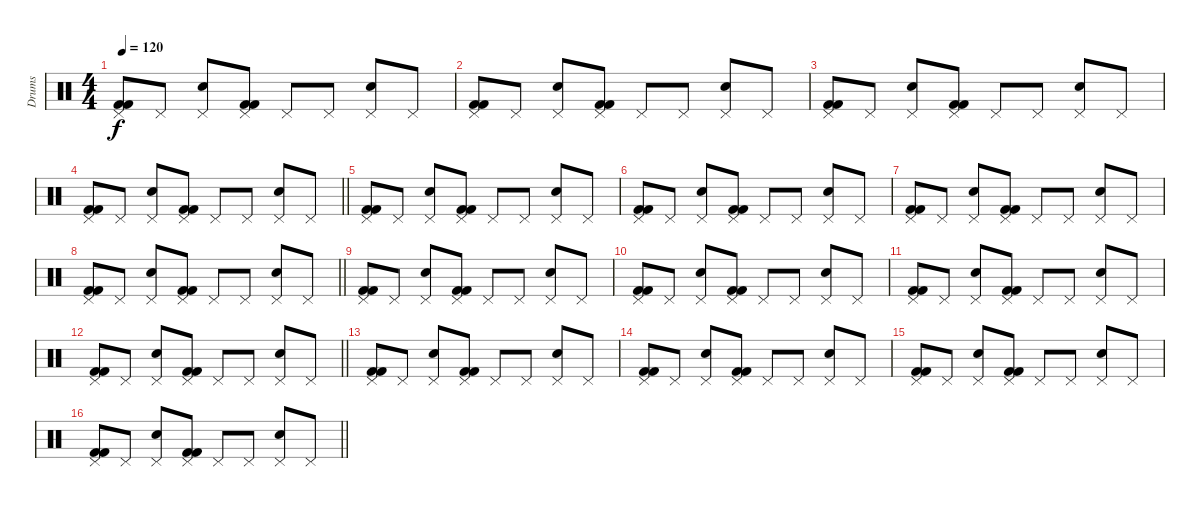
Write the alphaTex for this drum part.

\track ("Drums" "Drums") {instrument percussion}
\staff {score}
\articulation defaults
\ts (4 4)
\tempo 120
\clef neutral
\ks c
("Pedal Hi-Hat (hit)" "Kick (hit) 2" "Kick (hit) 2").8{dy f} "Pedal Hi-Hat (hit)".8 ("Electric Snare (hit)" "Pedal Hi-Hat (hit)").8 ("Pedal Hi-Hat (hit)" "Kick (hit) 2" "Kick (hit) 2").8 "Pedal Hi-Hat (hit)".8 "Pedal Hi-Hat (hit)".8 ("Electric Snare (hit)" "Pedal Hi-Hat (hit)").8 "Pedal Hi-Hat (hit)".8 |
("Pedal Hi-Hat (hit)" "Kick (hit) 2" "Kick (hit) 2").8 "Pedal Hi-Hat (hit)".8 ("Electric Snare (hit)" "Pedal Hi-Hat (hit)").8 ("Pedal Hi-Hat (hit)" "Kick (hit) 2" "Kick (hit) 2").8 "Pedal Hi-Hat (hit)".8 "Pedal Hi-Hat (hit)".8 ("Electric Snare (hit)" "Pedal Hi-Hat (hit)").8 "Pedal Hi-Hat (hit)".8 |
("Pedal Hi-Hat (hit)" "Kick (hit) 2" "Kick (hit) 2").8 "Pedal Hi-Hat (hit)".8 ("Electric Snare (hit)" "Pedal Hi-Hat (hit)").8 ("Pedal Hi-Hat (hit)" "Kick (hit) 2" "Kick (hit) 2").8 "Pedal Hi-Hat (hit)".8 "Pedal Hi-Hat (hit)".8 ("Electric Snare (hit)" "Pedal Hi-Hat (hit)").8 "Pedal Hi-Hat (hit)".8 |
\barLineRight lightlight
("Pedal Hi-Hat (hit)" "Kick (hit) 2" "Kick (hit) 2").8 "Pedal Hi-Hat (hit)".8 ("Electric Snare (hit)" "Pedal Hi-Hat (hit)").8 ("Pedal Hi-Hat (hit)" "Kick (hit) 2" "Kick (hit) 2").8 "Pedal Hi-Hat (hit)".8 "Pedal Hi-Hat (hit)".8 ("Electric Snare (hit)" "Pedal Hi-Hat (hit)").8 "Pedal Hi-Hat (hit)".8 |
("Pedal Hi-Hat (hit)" "Kick (hit) 2" "Kick (hit) 2").8 "Pedal Hi-Hat (hit)".8 ("Electric Snare (hit)" "Pedal Hi-Hat (hit)").8 ("Pedal Hi-Hat (hit)" "Kick (hit) 2" "Kick (hit) 2").8 "Pedal Hi-Hat (hit)".8 "Pedal Hi-Hat (hit)".8 ("Electric Snare (hit)" "Pedal Hi-Hat (hit)").8 "Pedal Hi-Hat (hit)".8 |
("Pedal Hi-Hat (hit)" "Kick (hit) 2" "Kick (hit) 2").8 "Pedal Hi-Hat (hit)".8 ("Electric Snare (hit)" "Pedal Hi-Hat (hit)").8 ("Pedal Hi-Hat (hit)" "Kick (hit) 2" "Kick (hit) 2").8 "Pedal Hi-Hat (hit)".8 "Pedal Hi-Hat (hit)".8 ("Electric Snare (hit)" "Pedal Hi-Hat (hit)").8 "Pedal Hi-Hat (hit)".8 |
("Pedal Hi-Hat (hit)" "Kick (hit) 2" "Kick (hit) 2").8 "Pedal Hi-Hat (hit)".8 ("Electric Snare (hit)" "Pedal Hi-Hat (hit)").8 ("Pedal Hi-Hat (hit)" "Kick (hit) 2" "Kick (hit) 2").8 "Pedal Hi-Hat (hit)".8 "Pedal Hi-Hat (hit)".8 ("Electric Snare (hit)" "Pedal Hi-Hat (hit)").8 "Pedal Hi-Hat (hit)".8 |
\barLineRight lightlight
("Pedal Hi-Hat (hit)" "Kick (hit) 2" "Kick (hit) 2").8 "Pedal Hi-Hat (hit)".8 ("Electric Snare (hit)" "Pedal Hi-Hat (hit)").8 ("Pedal Hi-Hat (hit)" "Kick (hit) 2" "Kick (hit) 2").8 "Pedal Hi-Hat (hit)".8 "Pedal Hi-Hat (hit)".8 ("Electric Snare (hit)" "Pedal Hi-Hat (hit)").8 "Pedal Hi-Hat (hit)".8 |
("Pedal Hi-Hat (hit)" "Kick (hit) 2" "Kick (hit) 2").8 "Pedal Hi-Hat (hit)".8 ("Electric Snare (hit)" "Pedal Hi-Hat (hit)").8 ("Pedal Hi-Hat (hit)" "Kick (hit) 2" "Kick (hit) 2").8 "Pedal Hi-Hat (hit)".8 "Pedal Hi-Hat (hit)".8 ("Electric Snare (hit)" "Pedal Hi-Hat (hit)").8 "Pedal Hi-Hat (hit)".8 |
("Pedal Hi-Hat (hit)" "Kick (hit) 2" "Kick (hit) 2").8 "Pedal Hi-Hat (hit)".8 ("Electric Snare (hit)" "Pedal Hi-Hat (hit)").8 ("Pedal Hi-Hat (hit)" "Kick (hit) 2" "Kick (hit) 2").8 "Pedal Hi-Hat (hit)".8 "Pedal Hi-Hat (hit)".8 ("Electric Snare (hit)" "Pedal Hi-Hat (hit)").8 "Pedal Hi-Hat (hit)".8 |
("Pedal Hi-Hat (hit)" "Kick (hit) 2" "Kick (hit) 2").8 "Pedal Hi-Hat (hit)".8 ("Electric Snare (hit)" "Pedal Hi-Hat (hit)").8 ("Pedal Hi-Hat (hit)" "Kick (hit) 2" "Kick (hit) 2").8 "Pedal Hi-Hat (hit)".8 "Pedal Hi-Hat (hit)".8 ("Electric Snare (hit)" "Pedal Hi-Hat (hit)").8 "Pedal Hi-Hat (hit)".8 |
\barLineRight lightlight
("Pedal Hi-Hat (hit)" "Kick (hit) 2" "Kick (hit) 2").8 "Pedal Hi-Hat (hit)".8 ("Electric Snare (hit)" "Pedal Hi-Hat (hit)").8 ("Pedal Hi-Hat (hit)" "Kick (hit) 2" "Kick (hit) 2").8 "Pedal Hi-Hat (hit)".8 "Pedal Hi-Hat (hit)".8 ("Electric Snare (hit)" "Pedal Hi-Hat (hit)").8 "Pedal Hi-Hat (hit)".8 |
("Pedal Hi-Hat (hit)" "Kick (hit) 2" "Kick (hit) 2").8 "Pedal Hi-Hat (hit)".8 ("Electric Snare (hit)" "Pedal Hi-Hat (hit)").8 ("Pedal Hi-Hat (hit)" "Kick (hit) 2" "Kick (hit) 2").8 "Pedal Hi-Hat (hit)".8 "Pedal Hi-Hat (hit)".8 ("Electric Snare (hit)" "Pedal Hi-Hat (hit)").8 "Pedal Hi-Hat (hit)".8 |
("Pedal Hi-Hat (hit)" "Kick (hit) 2" "Kick (hit) 2").8 "Pedal Hi-Hat (hit)".8 ("Electric Snare (hit)" "Pedal Hi-Hat (hit)").8 ("Pedal Hi-Hat (hit)" "Kick (hit) 2" "Kick (hit) 2").8 "Pedal Hi-Hat (hit)".8 "Pedal Hi-Hat (hit)".8 ("Electric Snare (hit)" "Pedal Hi-Hat (hit)").8 "Pedal Hi-Hat (hit)".8 |
("Pedal Hi-Hat (hit)" "Kick (hit) 2" "Kick (hit) 2").8 "Pedal Hi-Hat (hit)".8 ("Electric Snare (hit)" "Pedal Hi-Hat (hit)").8 ("Pedal Hi-Hat (hit)" "Kick (hit) 2" "Kick (hit) 2").8 "Pedal Hi-Hat (hit)".8 "Pedal Hi-Hat (hit)".8 ("Electric Snare (hit)" "Pedal Hi-Hat (hit)").8 "Pedal Hi-Hat (hit)".8 |
\barLineRight lightlight
("Pedal Hi-Hat (hit)" "Kick (hit) 2" "Kick (hit) 2").8 "Pedal Hi-Hat (hit)".8 ("Electric Snare (hit)" "Pedal Hi-Hat (hit)").8 ("Pedal Hi-Hat (hit)" "Kick (hit) 2" "Kick (hit) 2").8 "Pedal Hi-Hat (hit)".8 "Pedal Hi-Hat (hit)".8 ("Electric Snare (hit)" "Pedal Hi-Hat (hit)").8 "Pedal Hi-Hat (hit)".8
